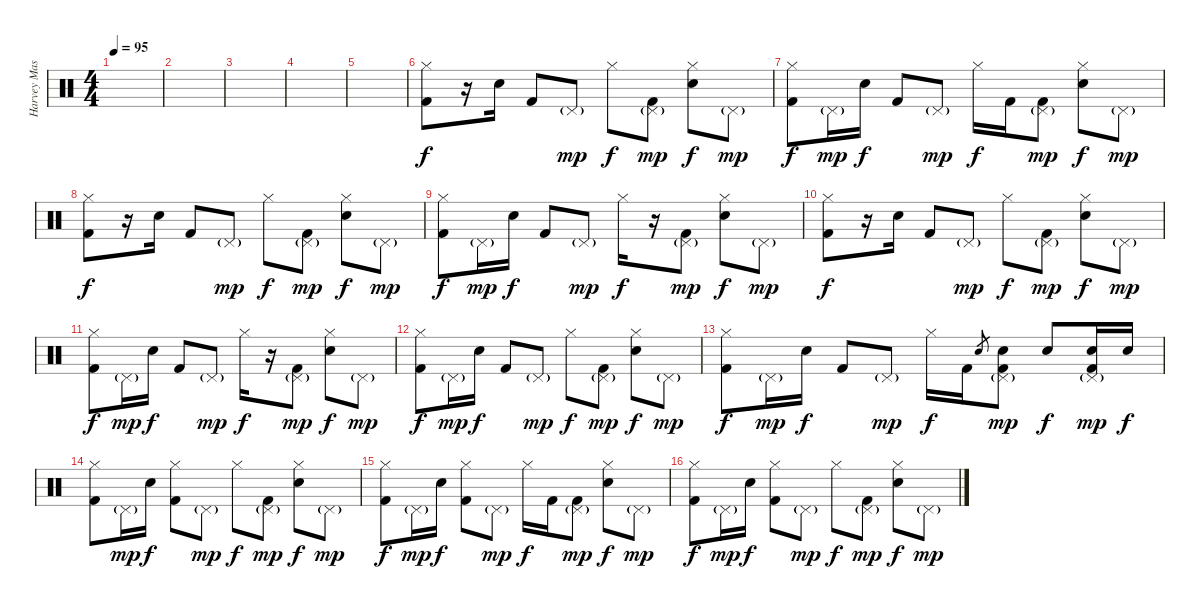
\track ("Harvey Mason (batterie)" "Harvey Mas") {instrument percussion}
\staff {score}
\articulation defaults
\ts (4 4)
\tempo 95
\clef neutral
\ks c
|
|
|
|
|
("Kick (hit) 2" "Hi-Hat (closed)").8 r.16 "Electric Snare (hit)".16 "Kick (hit) 2".8 "Pedal Hi-Hat (hit)"{g}.8{dy mp} "Hi-Hat (closed)".8{dy f} ("Kick (hit) 2" "Pedal Hi-Hat (hit)"{g}).8{dy mp} ("Electric Snare (hit)" "Hi-Hat (closed)").8{dy f} "Pedal Hi-Hat (hit)"{g}.8{dy mp} |
("Kick (hit) 2" "Hi-Hat (closed)").8{dy f} "Pedal Hi-Hat (hit)"{g}.16{dy mp} "Electric Snare (hit)".16{dy f} "Kick (hit) 2".8 "Pedal Hi-Hat (hit)"{g}.8{dy mp} "Hi-Hat (closed)".16{dy f} "Kick (hit) 2".16 ("Kick (hit) 2" "Pedal Hi-Hat (hit)"{g}).8{dy mp} ("Electric Snare (hit)" "Hi-Hat (closed)").8{dy f} "Pedal Hi-Hat (hit)"{g}.8{dy mp} |
("Kick (hit) 2" "Hi-Hat (closed)").8{dy f} r.16 "Electric Snare (hit)".16 "Kick (hit) 2".8 "Pedal Hi-Hat (hit)"{g}.8{dy mp} "Hi-Hat (closed)".8{dy f} ("Kick (hit) 2" "Pedal Hi-Hat (hit)"{g}).8{dy mp} ("Electric Snare (hit)" "Hi-Hat (closed)").8{dy f} "Pedal Hi-Hat (hit)"{g}.8{dy mp} |
("Kick (hit) 2" "Hi-Hat (closed)").8{dy f} "Pedal Hi-Hat (hit)"{g}.16{dy mp} "Electric Snare (hit)".16{dy f} "Kick (hit) 2".8 "Pedal Hi-Hat (hit)"{g}.8{dy mp} "Hi-Hat (closed)".16{dy f} r.16 ("Kick (hit) 2" "Pedal Hi-Hat (hit)"{g}).8{dy mp} ("Electric Snare (hit)" "Hi-Hat (closed)").8{dy f} "Pedal Hi-Hat (hit)"{g}.8{dy mp} |
("Kick (hit) 2" "Hi-Hat (closed)").8{dy f} r.16 "Electric Snare (hit)".16 "Kick (hit) 2".8 "Pedal Hi-Hat (hit)"{g}.8{dy mp} "Hi-Hat (closed)".8{dy f} ("Kick (hit) 2" "Pedal Hi-Hat (hit)"{g}).8{dy mp} ("Electric Snare (hit)" "Hi-Hat (closed)").8{dy f} "Pedal Hi-Hat (hit)"{g}.8{dy mp} |
("Kick (hit) 2" "Hi-Hat (closed)").8{dy f} "Pedal Hi-Hat (hit)"{g}.16{dy mp} "Electric Snare (hit)".16{dy f} "Kick (hit) 2".8 "Pedal Hi-Hat (hit)"{g}.8{dy mp} "Hi-Hat (closed)".16{dy f} r.16 ("Kick (hit) 2" "Pedal Hi-Hat (hit)"{g}).8{dy mp} ("Electric Snare (hit)" "Hi-Hat (closed)").8{dy f} "Pedal Hi-Hat (hit)"{g}.8{dy mp} |
("Kick (hit) 2" "Hi-Hat (closed)").8{dy f} "Pedal Hi-Hat (hit)"{g}.16{dy mp} "Electric Snare (hit)".16{dy f} "Kick (hit) 2".8 "Pedal Hi-Hat (hit)"{g}.8{dy mp} "Hi-Hat (closed)".8{dy f} ("Kick (hit) 2" "Pedal Hi-Hat (hit)"{g}).8{dy mp} ("Electric Snare (hit)" "Hi-Hat (closed)").8{dy f} "Pedal Hi-Hat (hit)"{g}.8{dy mp} |
("Kick (hit) 2" "Hi-Hat (closed)").8{dy f} "Pedal Hi-Hat (hit)"{g}.16{dy mp} "Electric Snare (hit)".16{dy f} "Kick (hit) 2".8 "Pedal Hi-Hat (hit)"{g}.8{dy mp} "Hi-Hat (closed)".16{dy f} "Kick (hit) 2".16 "Electric Snare (hit)".8{gr} ("Kick (hit) 2" "Pedal Hi-Hat (hit)"{g} "Electric Snare (hit)").8{dy mp} "Electric Snare (hit)".8{dy f} ("Electric Snare (hit)" "Pedal Hi-Hat (hit)"{g} "Kick (hit) 2").16{dy mp} "Electric Snare (hit)".16{dy f} |
("Kick (hit) 2" "Hi-Hat (closed)").8 "Pedal Hi-Hat (hit)"{g}.16{dy mp} "Electric Snare (hit)".16{dy f} ("Kick (hit) 2" "Hi-Hat (closed)").8 "Pedal Hi-Hat (hit)"{g}.8{dy mp} "Hi-Hat (closed)".8{dy f} ("Kick (hit) 2" "Pedal Hi-Hat (hit)"{g}).8{dy mp} ("Electric Snare (hit)" "Hi-Hat (closed)").8{dy f} "Pedal Hi-Hat (hit)"{g}.8{dy mp} |
("Kick (hit) 2" "Hi-Hat (closed)").8{dy f} "Pedal Hi-Hat (hit)"{g}.16{dy mp} "Electric Snare (hit)".16{dy f} ("Kick (hit) 2" "Hi-Hat (closed)").8 "Pedal Hi-Hat (hit)"{g}.8{dy mp} "Hi-Hat (closed)".16{dy f} "Kick (hit) 2".16 ("Kick (hit) 2" "Pedal Hi-Hat (hit)"{g}).8{dy mp} ("Electric Snare (hit)" "Hi-Hat (closed)").8{dy f} "Pedal Hi-Hat (hit)"{g}.8{dy mp} |
("Kick (hit) 2" "Hi-Hat (closed)").8{dy f} "Pedal Hi-Hat (hit)"{g}.16{dy mp} "Electric Snare (hit)".16{dy f} ("Kick (hit) 2" "Hi-Hat (closed)").8 "Pedal Hi-Hat (hit)"{g}.8{dy mp} "Hi-Hat (closed)".8{dy f} ("Kick (hit) 2" "Pedal Hi-Hat (hit)"{g}).8{dy mp} ("Electric Snare (hit)" "Hi-Hat (closed)").8{dy f} "Pedal Hi-Hat (hit)"{g}.8{dy mp}
